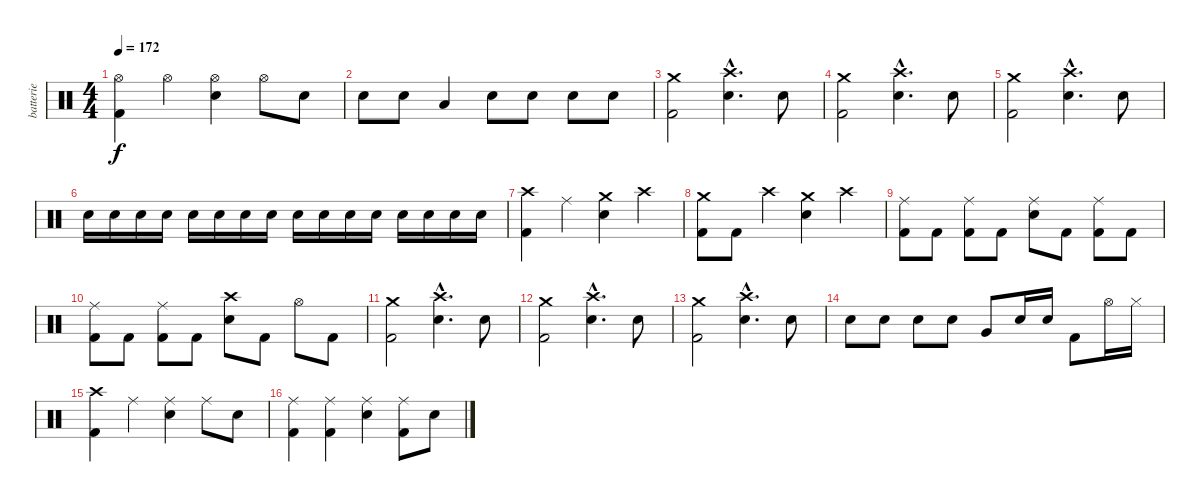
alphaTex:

\track ("batterie" "batterie") {instrument percussion}
\staff {score}
\articulation defaults
\ts (4 4)
\tempo 172
\clef neutral
\ks c
("Hi-Hat (open)" "Kick (hit) 2").4{dy f} "Hi-Hat (open)".4 ("Electric Snare (hit)" "Hi-Hat (open)").4 "Hi-Hat (open)".8 "Electric Snare (hit)".8 |
"Electric Snare (hit)".8 "Electric Snare (hit)".8 "Low Tom (hit)".4 "Electric Snare (hit)".8 "Electric Snare (hit)".8 "Electric Snare (hit)".8 "Electric Snare (hit)".8 |
("Kick (hit) 2" "Crash medium (hit)").2 ("Crash high (hit)"{hac} "Electric Snare (hit)"{hac}).4{d} "Electric Snare (hit)".8 |
("Kick (hit) 2" "Crash medium (hit)").2 ("Crash high (hit)"{hac} "Electric Snare (hit)"{hac}).4{d} "Electric Snare (hit)".8 |
("Kick (hit) 2" "Crash medium (hit)").2 ("Crash high (hit)"{hac} "Electric Snare (hit)"{hac}).4{d} "Electric Snare (hit)".8 |
"Electric Snare (hit)".16 "Electric Snare (hit)".16 "Electric Snare (hit)".16 "Electric Snare (hit)".16 "Electric Snare (hit)".16 "Electric Snare (hit)".16 "Electric Snare (hit)".16 "Electric Snare (hit)".16 "Electric Snare (hit)".16 "Electric Snare (hit)".16 "Electric Snare (hit)".16 "Electric Snare (hit)".16 "Electric Snare (hit)".16 "Electric Snare (hit)".16 "Electric Snare (hit)".16 "Electric Snare (hit)".16 |
("Crash high (hit)" "Kick (hit) 2").4 "Ride (middle)".4 ("Crash medium (hit)" "Electric Snare (hit)").4 "Crash high (hit)".4 |
("Crash medium (hit)" "Kick (hit) 2").8 "Kick (hit) 2".8 "Crash high (hit)".4 ("Crash medium (hit)" "Electric Snare (hit)").4 "Crash high (hit)".4 |
("Ride (middle)" "Kick (hit) 2").8 "Kick (hit) 2".8 ("Ride (middle)" "Kick (hit) 2").8 "Kick (hit) 2".8 ("Ride (middle)" "Electric Snare (hit)").8 "Kick (hit) 2".8 ("Ride (middle)" "Kick (hit) 2").8 "Kick (hit) 2".8 |
("Kick (hit) 2" "Ride (middle)").8 "Kick (hit) 2".8 ("Kick (hit) 2" "Ride (middle)").8 "Kick (hit) 2".8 ("Crash high (hit)" "Electric Snare (hit)").8 "Kick (hit) 2".8 "Hi-Hat (open)".8 "Kick (hit) 2".8 |
("Kick (hit) 2" "Crash medium (hit)").2 ("Crash high (hit)"{hac} "Electric Snare (hit)"{hac}).4{d} "Electric Snare (hit)".8 |
("Kick (hit) 2" "Crash medium (hit)").2 ("Crash high (hit)"{hac} "Electric Snare (hit)"{hac}).4{d} "Electric Snare (hit)".8 |
("Kick (hit) 2" "Crash medium (hit)").2 ("Crash high (hit)"{hac} "Electric Snare (hit)"{hac}).4{d} "Electric Snare (hit)".8 |
"Electric Snare (hit)".8 "Electric Snare (hit)".8 "Electric Snare (hit)".8 "Electric Snare (hit)".8 "Very Low Tom (hit)".8 "Electric Snare (hit)".16 "Electric Snare (hit)".16 "Kick (hit) 2".8 "Hi-Hat (open)".16 "Hi-Hat (closed)".16 |
("Crash high (hit)" "Kick (hit) 2").4 "Ride (middle)".4 ("Electric Snare (hit)" "Ride (middle)").4 "Ride (middle)".8 "Electric Snare (hit)".8 |
("Kick (hit) 2" "Ride (middle)").4 ("Kick (hit) 2" "Ride (middle)").4 ("Ride (middle)" "Electric Snare (hit)").4 ("Ride (middle)" "Kick (hit) 2").8 "Electric Snare (hit)".8
